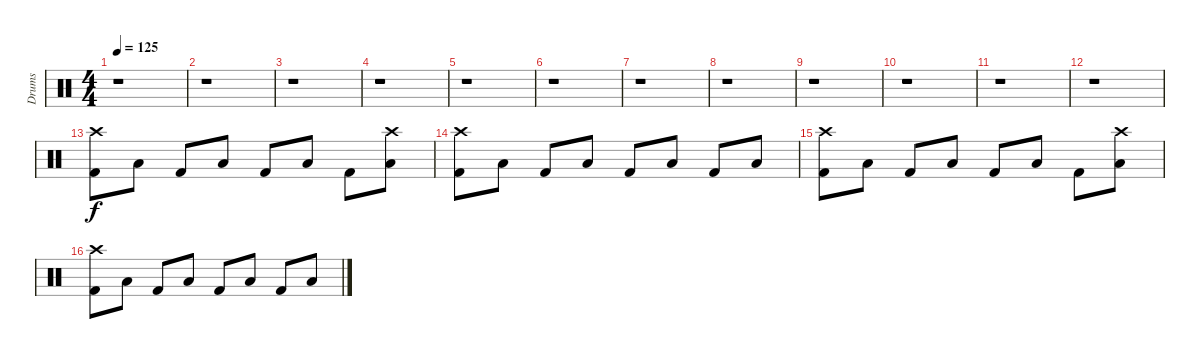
\track ("Drums" "Drums") {instrument percussion}
\staff {score}
\articulation defaults
\ts (4 4)
\tempo 125
\clef neutral
\ks c
r.1{dy f} |
r.1 |
r.1 |
r.1 |
r.1 |
r.1 |
r.1 |
r.1 |
r.1 |
r.1 |
r.1 |
r.1 |
("Crash high (hit)" "Kick (hit) 2").8 "Low Floor Tom (hit)".8 "Kick (hit) 2".8 "Low Floor Tom (hit)".8 "Kick (hit) 2".8 "Low Floor Tom (hit)".8 "Kick (hit) 2".8 ("Crash high (hit)" "Low Floor Tom (hit)").8 |
("Crash high (hit)" "Kick (hit) 2").8 "Low Floor Tom (hit)".8 "Kick (hit) 2".8 "Low Floor Tom (hit)".8 "Kick (hit) 2".8 "Low Floor Tom (hit)".8 "Kick (hit) 2".8 "Low Floor Tom (hit)".8 |
("Crash high (hit)" "Kick (hit) 2").8 "Low Floor Tom (hit)".8 "Kick (hit) 2".8 "Low Floor Tom (hit)".8 "Kick (hit) 2".8 "Low Floor Tom (hit)".8 "Kick (hit) 2".8 ("Crash high (hit)" "Low Floor Tom (hit)").8 |
("Crash high (hit)" "Kick (hit) 2").8 "Low Floor Tom (hit)".8 "Kick (hit) 2".8 "Low Floor Tom (hit)".8 "Kick (hit) 2".8 "Low Floor Tom (hit)".8 "Kick (hit) 2".8 "Low Floor Tom (hit)".8
